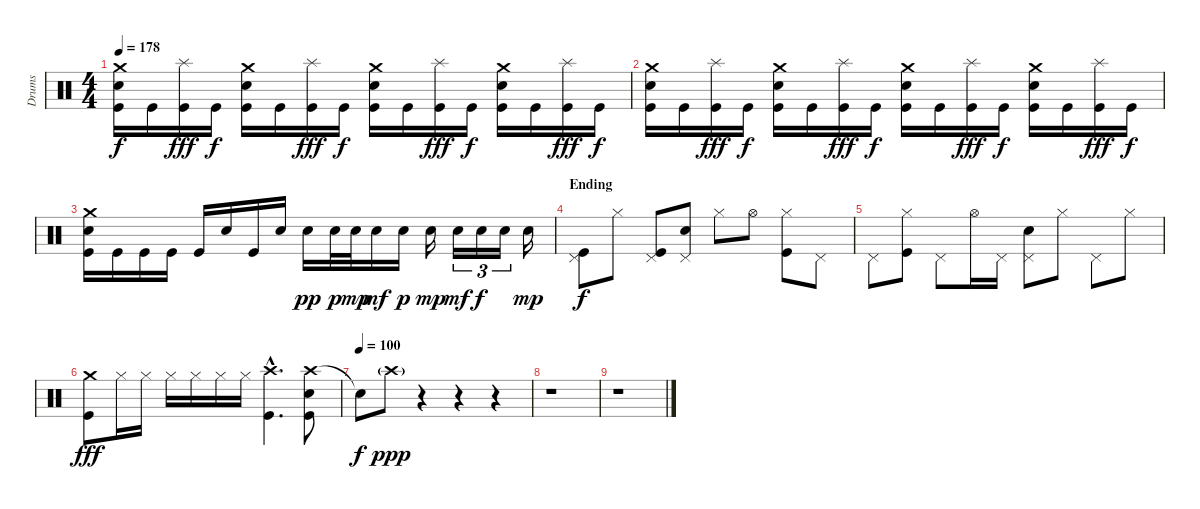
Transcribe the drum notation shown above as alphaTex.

\track ("Drums" "Drums") {instrument percussion}
\staff {score}
\articulation defaults
\ts (4 4)
\tempo 178
\clef neutral
\ks c
("Crash medium (hit)" "Electric Snare (hit)" "Kick (hit)").16{dy f} "Kick (hit)".16 ("Splash (hit)" "Kick (hit)").16{dy fff} "Kick (hit)".16{dy f} ("Crash medium (hit)" "Electric Snare (hit)" "Kick (hit)").16 "Kick (hit)".16 ("Splash (hit)" "Kick (hit)").16{dy fff} "Kick (hit)".16{dy f} ("Crash medium (hit)" "Electric Snare (hit)" "Kick (hit)").16 "Kick (hit)".16 ("Splash (hit)" "Kick (hit)").16{dy fff} "Kick (hit)".16{dy f} ("Crash medium (hit)" "Electric Snare (hit)" "Kick (hit)").16 "Kick (hit)".16 ("Splash (hit)" "Kick (hit)").16{dy fff} "Kick (hit)".16{dy f} |
("Crash medium (hit)" "Electric Snare (hit)" "Kick (hit)").16 "Kick (hit)".16 ("Splash (hit)" "Kick (hit)").16{dy fff} "Kick (hit)".16{dy f} ("Crash medium (hit)" "Electric Snare (hit)" "Kick (hit)").16 "Kick (hit)".16 ("Splash (hit)" "Kick (hit)").16{dy fff} "Kick (hit)".16{dy f} ("Crash medium (hit)" "Electric Snare (hit)" "Kick (hit)").16 "Kick (hit)".16 ("Splash (hit)" "Kick (hit)").16{dy fff} "Kick (hit)".16{dy f} ("Crash medium (hit)" "Electric Snare (hit)" "Kick (hit)").16 "Kick (hit)".16 ("Splash (hit)" "Kick (hit)").16{dy fff} "Kick (hit)".16{dy f} |
("Crash medium (hit)" "Electric Snare (hit)" "Kick (hit)").16 "Kick (hit)".16 "Kick (hit)".16 "Kick (hit)".16 "Kick (hit)".16 "Electric Snare (hit)".16 "Kick (hit)".16 "Electric Snare (hit)".16 "Electric Snare (hit)".16{dy pp} "Electric Snare (hit)".32{dy p} "Electric Snare (hit)".32{dy mp} "Electric Snare (hit)".16{dy mf} "Electric Snare (hit)".16{dy p} "Electric Snare (hit)".16{dy mp} "Electric Snare (hit)".16{tu (3 2) dy mf} "Electric Snare (hit)".16{tu (3 2) dy f} "Electric Snare (hit)".16{tu (3 2)} "Electric Snare (hit)".16{dy mp} |
\section ("" "Ending")
("Pedal Hi-Hat (hit)" "Kick (hit)").8{dy f} "Hi-Hat (closed)".8 ("Pedal Hi-Hat (hit)" "Kick (hit)").8 ("Pedal Hi-Hat (hit)" "Electric Snare (hit)").8 "Hi-Hat (closed)".8 "Hi-Hat (open)".8 ("Hi-Hat (closed)" "Kick (hit)").8 "Pedal Hi-Hat (hit)".8 |
"Pedal Hi-Hat (hit)".8 ("Hi-Hat (closed)" "Kick (hit)").8 "Pedal Hi-Hat (hit)".8 "Hi-Hat (open)".16 "Pedal Hi-Hat (hit)".16 ("Pedal Hi-Hat (hit)" "Electric Snare (hit)").8 "Hi-Hat (closed)".8 "Pedal Hi-Hat (hit)".8 "Hi-Hat (closed)".8 |
("Crash medium (hit)" "Kick (hit)").8{dy fff} "Hi-Hat (closed)".16 "Hi-Hat (closed)".16 "Hi-Hat (closed)".16 "Hi-Hat (closed)".16 "Hi-Hat (closed)".16 "Hi-Hat (closed)".16 ("Crash high (hit)"{hac} "Kick (hit)"{hac}).4{d} ("Crash high (hit)" "Electric Snare (hit)" "Kick (hit)").8 |
\tempo (100)
"Snare (hit)"{t}.8{dy f} "Crash high (hit)"{g}.8{dy ppp} r.4 r.4 r.4 |
r.1 |
r.1
